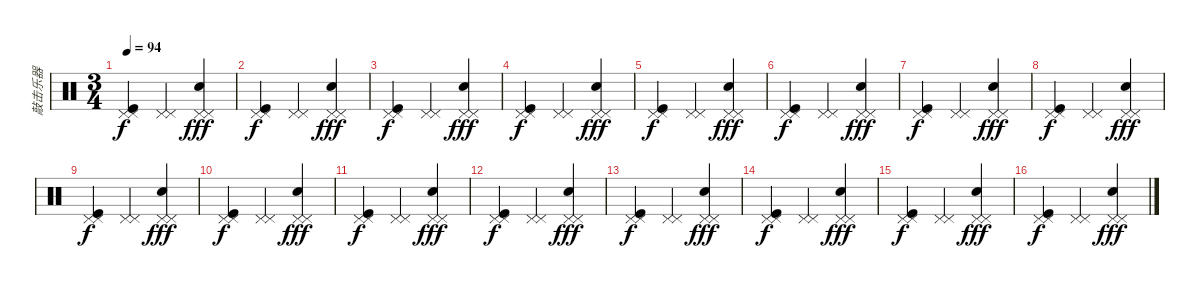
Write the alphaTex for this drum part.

\track ("敲击乐器" "敲击乐器") {instrument percussion}
\staff {score}
\articulation defaults
\ts (3 4)
\tempo 94
\clef neutral
\ks c
("Pedal Hi-Hat (hit)" "Pedal Hi-Hat (hit)" "Kick (hit)").4{dy f} ("Pedal Hi-Hat (hit)" "Pedal Hi-Hat (hit)").4 ("Pedal Hi-Hat (hit)" "Pedal Hi-Hat (hit)" "Snare (hit) 2").4{dy fff} |
("Pedal Hi-Hat (hit)" "Pedal Hi-Hat (hit)" "Kick (hit)").4{dy f} ("Pedal Hi-Hat (hit)" "Pedal Hi-Hat (hit)").4 ("Pedal Hi-Hat (hit)" "Pedal Hi-Hat (hit)" "Snare (hit) 2").4{dy fff} |
("Pedal Hi-Hat (hit)" "Pedal Hi-Hat (hit)" "Kick (hit)").4{dy f} ("Pedal Hi-Hat (hit)" "Pedal Hi-Hat (hit)").4 ("Pedal Hi-Hat (hit)" "Pedal Hi-Hat (hit)" "Snare (hit) 2").4{dy fff} |
("Pedal Hi-Hat (hit)" "Pedal Hi-Hat (hit)" "Kick (hit)").4{dy f} ("Pedal Hi-Hat (hit)" "Pedal Hi-Hat (hit)").4 ("Pedal Hi-Hat (hit)" "Pedal Hi-Hat (hit)" "Snare (hit) 2").4{dy fff} |
("Pedal Hi-Hat (hit)" "Pedal Hi-Hat (hit)" "Kick (hit)").4{dy f} ("Pedal Hi-Hat (hit)" "Pedal Hi-Hat (hit)").4 ("Pedal Hi-Hat (hit)" "Pedal Hi-Hat (hit)" "Snare (hit) 2").4{dy fff} |
("Pedal Hi-Hat (hit)" "Pedal Hi-Hat (hit)" "Kick (hit)").4{dy f} ("Pedal Hi-Hat (hit)" "Pedal Hi-Hat (hit)").4 ("Pedal Hi-Hat (hit)" "Pedal Hi-Hat (hit)" "Snare (hit) 2").4{dy fff} |
("Pedal Hi-Hat (hit)" "Pedal Hi-Hat (hit)" "Kick (hit)").4{dy f} ("Pedal Hi-Hat (hit)" "Pedal Hi-Hat (hit)").4 ("Pedal Hi-Hat (hit)" "Pedal Hi-Hat (hit)" "Snare (hit) 2").4{dy fff} |
("Pedal Hi-Hat (hit)" "Pedal Hi-Hat (hit)" "Kick (hit)").4{dy f} ("Pedal Hi-Hat (hit)" "Pedal Hi-Hat (hit)").4 ("Pedal Hi-Hat (hit)" "Pedal Hi-Hat (hit)" "Snare (hit) 2").4{dy fff} |
("Pedal Hi-Hat (hit)" "Pedal Hi-Hat (hit)" "Kick (hit)").4{dy f} ("Pedal Hi-Hat (hit)" "Pedal Hi-Hat (hit)").4 ("Pedal Hi-Hat (hit)" "Pedal Hi-Hat (hit)" "Snare (hit) 2").4{dy fff} |
("Pedal Hi-Hat (hit)" "Pedal Hi-Hat (hit)" "Kick (hit)").4{dy f} ("Pedal Hi-Hat (hit)" "Pedal Hi-Hat (hit)").4 ("Pedal Hi-Hat (hit)" "Pedal Hi-Hat (hit)" "Snare (hit) 2").4{dy fff} |
("Pedal Hi-Hat (hit)" "Pedal Hi-Hat (hit)" "Kick (hit)").4{dy f} ("Pedal Hi-Hat (hit)" "Pedal Hi-Hat (hit)").4 ("Pedal Hi-Hat (hit)" "Pedal Hi-Hat (hit)" "Snare (hit) 2").4{dy fff} |
("Pedal Hi-Hat (hit)" "Pedal Hi-Hat (hit)" "Kick (hit)").4{dy f} ("Pedal Hi-Hat (hit)" "Pedal Hi-Hat (hit)").4 ("Pedal Hi-Hat (hit)" "Pedal Hi-Hat (hit)" "Snare (hit) 2").4{dy fff} |
("Pedal Hi-Hat (hit)" "Pedal Hi-Hat (hit)" "Kick (hit)").4{dy f} ("Pedal Hi-Hat (hit)" "Pedal Hi-Hat (hit)").4 ("Pedal Hi-Hat (hit)" "Pedal Hi-Hat (hit)" "Snare (hit) 2").4{dy fff} |
("Pedal Hi-Hat (hit)" "Pedal Hi-Hat (hit)" "Kick (hit)").4{dy f} ("Pedal Hi-Hat (hit)" "Pedal Hi-Hat (hit)").4 ("Pedal Hi-Hat (hit)" "Pedal Hi-Hat (hit)" "Snare (hit) 2").4{dy fff} |
("Pedal Hi-Hat (hit)" "Pedal Hi-Hat (hit)" "Kick (hit)").4{dy f} ("Pedal Hi-Hat (hit)" "Pedal Hi-Hat (hit)").4 ("Pedal Hi-Hat (hit)" "Pedal Hi-Hat (hit)" "Snare (hit) 2").4{dy fff} |
("Pedal Hi-Hat (hit)" "Pedal Hi-Hat (hit)" "Kick (hit)").4{dy f} ("Pedal Hi-Hat (hit)" "Pedal Hi-Hat (hit)").4 ("Pedal Hi-Hat (hit)" "Pedal Hi-Hat (hit)" "Snare (hit) 2").4{dy fff}
